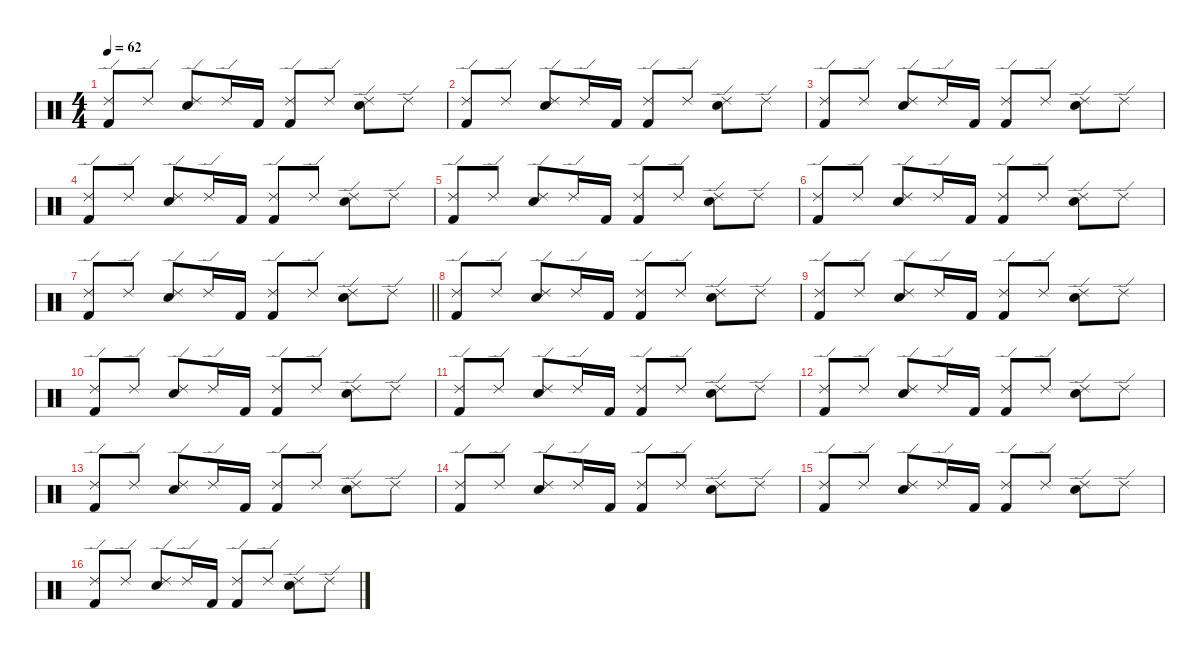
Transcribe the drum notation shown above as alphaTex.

\defaultSystemsLayout 4
\hideDynamics
\bracketExtendMode nobrackets
\singleTrackTrackNamePolicy hidden
\multiTrackTrackNamePolicy hidden
\firstSystemTrackNameMode fullname
\otherSystemsTrackNameOrientation horizontal
\track ("Drums" "drm.") {instrument percussion}
\staff {score}
\articulation defaults
\ts (4 4)
\tempo 62
\clef neutral
\ks c
("Ride (edge) 2" "Kick (hit) 2").8{dy f beam Up} "Ride (edge) 2".8{beam Up} ("Ride (edge) 2" "Snare (hit) 2").8{beam Up} "Ride (edge) 2".16{beam Up} "Kick (hit) 2".16{beam Up} ("Ride (edge) 2" "Kick (hit) 2").8{beam Up} "Ride (edge) 2".8{beam Up} ("Ride (edge) 2" "Snare (hit) 2").8{beam Down} "Ride (edge) 2".8{beam Down} |
("Ride (edge) 2" "Kick (hit) 2").8{beam Up} "Ride (edge) 2".8{beam Up} ("Ride (edge) 2" "Snare (hit) 2").8{beam Up} "Ride (edge) 2".16{beam Up} "Kick (hit) 2".16{beam Up} ("Ride (edge) 2" "Kick (hit) 2").8{beam Up} "Ride (edge) 2".8{beam Up} ("Ride (edge) 2" "Snare (hit) 2").8{beam Down} "Ride (edge) 2".8{beam Down} |
("Ride (edge) 2" "Kick (hit) 2").8{beam Up} "Ride (edge) 2".8{beam Up} ("Ride (edge) 2" "Snare (hit) 2").8{beam Up} "Ride (edge) 2".16{beam Up} "Kick (hit) 2".16{beam Up} ("Ride (edge) 2" "Kick (hit) 2").8{beam Up} "Ride (edge) 2".8{beam Up} ("Ride (edge) 2" "Snare (hit) 2").8{beam Down} "Ride (edge) 2".8{beam Down} |
("Ride (edge) 2" "Kick (hit) 2").8{beam Up} "Ride (edge) 2".8{beam Up} ("Ride (edge) 2" "Snare (hit) 2").8{beam Up} "Ride (edge) 2".16{beam Up} "Kick (hit) 2".16{beam Up} ("Ride (edge) 2" "Kick (hit) 2").8{beam Up} "Ride (edge) 2".8{beam Up} ("Ride (edge) 2" "Snare (hit) 2").8{beam Down} "Ride (edge) 2".8{beam Down} |
("Ride (edge) 2" "Kick (hit) 2").8{beam Up} "Ride (edge) 2".8{beam Up} ("Ride (edge) 2" "Snare (hit) 2").8{beam Up} "Ride (edge) 2".16{beam Up} "Kick (hit) 2".16{beam Up} ("Ride (edge) 2" "Kick (hit) 2").8{beam Up} "Ride (edge) 2".8{beam Up} ("Ride (edge) 2" "Snare (hit) 2").8{beam Down} "Ride (edge) 2".8{beam Down} |
("Ride (edge) 2" "Kick (hit) 2").8{beam Up} "Ride (edge) 2".8{beam Up} ("Ride (edge) 2" "Snare (hit) 2").8{beam Up} "Ride (edge) 2".16{beam Up} "Kick (hit) 2".16{beam Up} ("Ride (edge) 2" "Kick (hit) 2").8{beam Up} "Ride (edge) 2".8{beam Up} ("Ride (edge) 2" "Snare (hit) 2").8{beam Down} "Ride (edge) 2".8{beam Down} |
\barLineRight lightlight
("Ride (edge) 2" "Kick (hit) 2").8{beam Up} "Ride (edge) 2".8{beam Up} ("Ride (edge) 2" "Snare (hit) 2").8{beam Up} "Ride (edge) 2".16{beam Up} "Kick (hit) 2".16{beam Up} ("Ride (edge) 2" "Kick (hit) 2").8{beam Up} "Ride (edge) 2".8{beam Up} ("Ride (edge) 2" "Snare (hit) 2").8{beam Down} "Ride (edge) 2".8{beam Down} |
("Ride (edge) 2" "Kick (hit) 2").8{beam Up} "Ride (edge) 2".8{beam Up} ("Ride (edge) 2" "Snare (hit) 2").8{beam Up} "Ride (edge) 2".16{beam Up} "Kick (hit) 2".16{beam Up} ("Ride (edge) 2" "Kick (hit) 2").8{beam Up} "Ride (edge) 2".8{beam Up} ("Ride (edge) 2" "Snare (hit) 2").8{beam Down} "Ride (edge) 2".8{beam Down} |
("Ride (edge) 2" "Kick (hit) 2").8{beam Up} "Ride (edge) 2".8{beam Up} ("Ride (edge) 2" "Snare (hit) 2").8{beam Up} "Ride (edge) 2".16{beam Up} "Kick (hit) 2".16{beam Up} ("Ride (edge) 2" "Kick (hit) 2").8{beam Up} "Ride (edge) 2".8{beam Up} ("Ride (edge) 2" "Snare (hit) 2").8{beam Down} "Ride (edge) 2".8{beam Down} |
("Ride (edge) 2" "Kick (hit) 2").8{beam Up} "Ride (edge) 2".8{beam Up} ("Ride (edge) 2" "Snare (hit) 2").8{beam Up} "Ride (edge) 2".16{beam Up} "Kick (hit) 2".16{beam Up} ("Ride (edge) 2" "Kick (hit) 2").8{beam Up} "Ride (edge) 2".8{beam Up} ("Ride (edge) 2" "Snare (hit) 2").8{beam Down} "Ride (edge) 2".8{beam Down} |
("Ride (edge) 2" "Kick (hit) 2").8{beam Up} "Ride (edge) 2".8{beam Up} ("Ride (edge) 2" "Snare (hit) 2").8{beam Up} "Ride (edge) 2".16{beam Up} "Kick (hit) 2".16{beam Up} ("Ride (edge) 2" "Kick (hit) 2").8{beam Up} "Ride (edge) 2".8{beam Up} ("Ride (edge) 2" "Snare (hit) 2").8{beam Down} "Ride (edge) 2".8{beam Down} |
("Ride (edge) 2" "Kick (hit) 2").8{beam Up} "Ride (edge) 2".8{beam Up} ("Ride (edge) 2" "Snare (hit) 2").8{beam Up} "Ride (edge) 2".16{beam Up} "Kick (hit) 2".16{beam Up} ("Ride (edge) 2" "Kick (hit) 2").8{beam Up} "Ride (edge) 2".8{beam Up} ("Ride (edge) 2" "Snare (hit) 2").8{beam Down} "Ride (edge) 2".8{beam Down} |
("Ride (edge) 2" "Kick (hit) 2").8{beam Up} "Ride (edge) 2".8{beam Up} ("Ride (edge) 2" "Snare (hit) 2").8{beam Up} "Ride (edge) 2".16{beam Up} "Kick (hit) 2".16{beam Up} ("Ride (edge) 2" "Kick (hit) 2").8{beam Up} "Ride (edge) 2".8{beam Up} ("Ride (edge) 2" "Snare (hit) 2").8{beam Down} "Ride (edge) 2".8{beam Down} |
("Ride (edge) 2" "Kick (hit) 2").8{beam Up} "Ride (edge) 2".8{beam Up} ("Ride (edge) 2" "Snare (hit) 2").8{beam Up} "Ride (edge) 2".16{beam Up} "Kick (hit) 2".16{beam Up} ("Ride (edge) 2" "Kick (hit) 2").8{beam Up} "Ride (edge) 2".8{beam Up} ("Ride (edge) 2" "Snare (hit) 2").8{beam Down} "Ride (edge) 2".8{beam Down} |
("Ride (edge) 2" "Kick (hit) 2").8{beam Up} "Ride (edge) 2".8{beam Up} ("Ride (edge) 2" "Snare (hit) 2").8{beam Up} "Ride (edge) 2".16{beam Up} "Kick (hit) 2".16{beam Up} ("Ride (edge) 2" "Kick (hit) 2").8{beam Up} "Ride (edge) 2".8{beam Up} ("Ride (edge) 2" "Snare (hit) 2").8{beam Down} "Ride (edge) 2".8{beam Down} |
("Ride (edge) 2" "Kick (hit) 2").8{beam Up} "Ride (edge) 2".8{beam Up} ("Ride (edge) 2" "Snare (hit) 2").8{beam Up} "Ride (edge) 2".16{beam Up} "Kick (hit) 2".16{beam Up} ("Ride (edge) 2" "Kick (hit) 2").8{beam Up} "Ride (edge) 2".8{beam Up} ("Ride (edge) 2" "Snare (hit) 2").8{beam Down} "Ride (edge) 2".8{beam Down}
